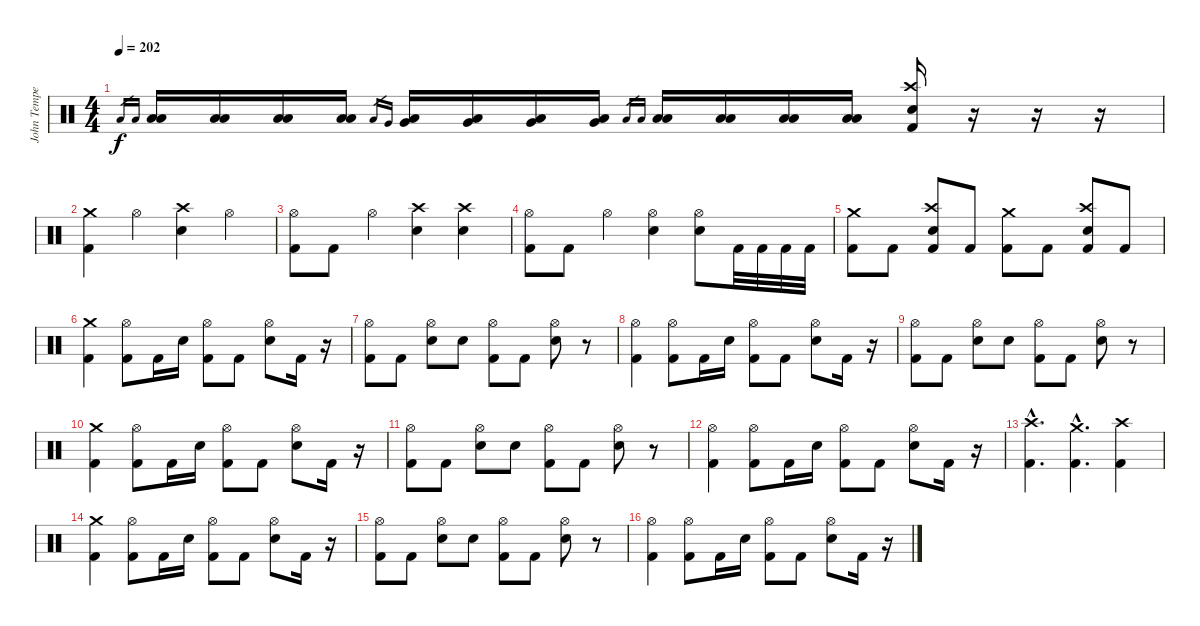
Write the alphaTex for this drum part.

\track ("John Tempesta" "John Tempe") {instrument percussion}
\staff {score}
\articulation defaults
\ts (4 4)
\tempo 202
\clef neutral
\ks c "Low Floor Tom (hit)".16{gr dy f} "Low Tom (hit)".16{gr}
("Low Floor Tom (hit)" "Low Tom (hit)").16 ("Low Floor Tom (hit)" "Low Tom (hit)").16 ("Low Floor Tom (hit)" "Low Tom (hit)").16 ("Low Floor Tom (hit)" "Low Tom (hit)").16 "Low Floor Tom (hit)".16{gr} "Very Low Tom (hit)".16{gr} ("Low Floor Tom (hit)" "Very Low Tom (hit)").16 ("Low Floor Tom (hit)" "Very Low Tom (hit)").16 ("Low Floor Tom (hit)" "Very Low Tom (hit)").16 ("Low Floor Tom (hit)" "Very Low Tom (hit)").16 "Low Floor Tom (hit)".16{gr} "Low Floor Tom (hit)".16{gr} ("Low Floor Tom (hit)" "Low Floor Tom (hit)").16 ("Low Floor Tom (hit)" "Low Floor Tom (hit)").16 ("Low Floor Tom (hit)" "Low Floor Tom (hit)").16 ("Low Floor Tom (hit)" "Low Floor Tom (hit)").16 ("Kick (hit) 2" "Crash high (hit)" "Snare (hit) 2").16 r.16 r.16 r.16 |
("Kick (hit) 2" "Crash medium (hit)").4 "Hi-Hat (open)".4 ("Snare (hit) 2" "Crash high (hit)").4 "Hi-Hat (open)".4 |
("Kick (hit) 2" "Hi-Hat (open)").8 "Kick (hit) 2".8 "Hi-Hat (open)".4 ("Snare (hit) 2" "Crash high (hit)").4 ("Snare (hit) 2" "Crash high (hit)").4 |
("Kick (hit) 2" "Hi-Hat (open)").8 "Kick (hit) 2".8 "Hi-Hat (open)".4 ("Snare (hit) 2" "Hi-Hat (open)").4 ("Snare (hit) 2" "Hi-Hat (open)").8 "Kick (hit) 2".32 "Kick (hit) 2".32 "Kick (hit) 2".32 "Kick (hit) 2".32 |
("Kick (hit) 2" "Crash medium (hit)").8 "Kick (hit) 2".8 ("Kick (hit) 2" "Crash high (hit)" "Snare (hit) 2").8 "Kick (hit) 2".8 ("Kick (hit) 2" "Crash medium (hit)").8 "Kick (hit) 2".8 ("Kick (hit) 2" "Crash high (hit)" "Snare (hit) 2").8 "Kick (hit) 2".8 |
("Kick (hit) 2" "Crash medium (hit)").4 ("Kick (hit) 2" "Hi-Hat (open)").8 "Kick (hit) 2".16 "Snare (hit) 2".16 ("Hi-Hat (open)" "Kick (hit) 2").8 "Kick (hit) 2".8 ("Snare (hit) 2" "Hi-Hat (open)").8 "Kick (hit) 2".16 r.16 |
("Kick (hit) 2" "Hi-Hat (open)").8 "Kick (hit) 2".8 ("Snare (hit) 2" "Hi-Hat (open)").8 "Snare (hit) 2".8 ("Kick (hit) 2" "Hi-Hat (open)").8 "Kick (hit) 2".8 ("Snare (hit) 2" "Hi-Hat (open)").8 r.8 |
("Kick (hit) 2" "Hi-Hat (open)").4 ("Kick (hit) 2" "Hi-Hat (open)").8 "Kick (hit) 2".16 "Snare (hit) 2".16 ("Hi-Hat (open)" "Kick (hit) 2").8 "Kick (hit) 2".8 ("Snare (hit) 2" "Hi-Hat (open)").8 "Kick (hit) 2".16 r.16 |
("Kick (hit) 2" "Hi-Hat (open)").8 "Kick (hit) 2".8 ("Snare (hit) 2" "Hi-Hat (open)").8 "Snare (hit) 2".8 ("Kick (hit) 2" "Hi-Hat (open)").8 "Kick (hit) 2".8 ("Snare (hit) 2" "Hi-Hat (open)").8 r.8 |
("Kick (hit) 2" "Crash medium (hit)").4 ("Kick (hit) 2" "Hi-Hat (open)").8 "Kick (hit) 2".16 "Snare (hit) 2".16 ("Hi-Hat (open)" "Kick (hit) 2").8 "Kick (hit) 2".8 ("Snare (hit) 2" "Hi-Hat (open)").8 "Kick (hit) 2".16 r.16 |
("Kick (hit) 2" "Hi-Hat (open)").8 "Kick (hit) 2".8 ("Snare (hit) 2" "Hi-Hat (open)").8 "Snare (hit) 2".8 ("Kick (hit) 2" "Hi-Hat (open)").8 "Kick (hit) 2".8 ("Snare (hit) 2" "Hi-Hat (open)").8 r.8 |
("Kick (hit) 2" "Hi-Hat (open)").4 ("Kick (hit) 2" "Hi-Hat (open)").8 "Kick (hit) 2".16 "Snare (hit) 2".16 ("Hi-Hat (open)" "Kick (hit) 2").8 "Kick (hit) 2".8 ("Snare (hit) 2" "Hi-Hat (open)").8 "Kick (hit) 2".16 r.16 |
("Kick (hit) 2"{hac} "Crash high (hit)"{hac}).4{d} ("Kick (hit) 2"{hac} "Crash medium (hit)"{hac}).4{d} ("Kick (hit) 2" "Crash high (hit)").4 |
("Kick (hit) 2" "Crash medium (hit)").4 ("Kick (hit) 2" "Hi-Hat (open)").8 "Kick (hit) 2".16 "Snare (hit) 2".16 ("Hi-Hat (open)" "Kick (hit) 2").8 "Kick (hit) 2".8 ("Snare (hit) 2" "Hi-Hat (open)").8 "Kick (hit) 2".16 r.16 |
("Kick (hit) 2" "Hi-Hat (open)").8 "Kick (hit) 2".8 ("Snare (hit) 2" "Hi-Hat (open)").8 "Snare (hit) 2".8 ("Kick (hit) 2" "Hi-Hat (open)").8 "Kick (hit) 2".8 ("Snare (hit) 2" "Hi-Hat (open)").8 r.8 |
("Kick (hit) 2" "Hi-Hat (open)").4 ("Kick (hit) 2" "Hi-Hat (open)").8 "Kick (hit) 2".16 "Snare (hit) 2".16 ("Hi-Hat (open)" "Kick (hit) 2").8 "Kick (hit) 2".8 ("Snare (hit) 2" "Hi-Hat (open)").8 "Kick (hit) 2".16 r.16
